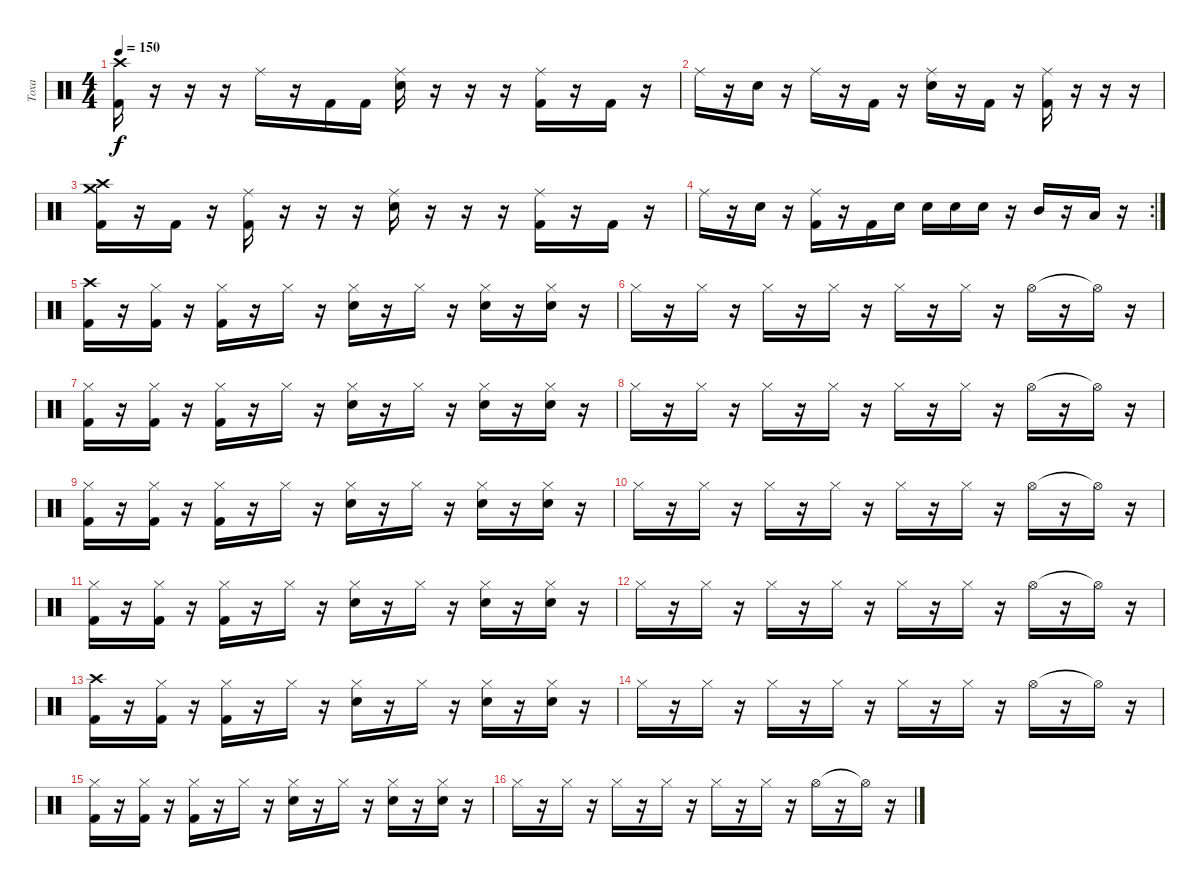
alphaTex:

\track ("Тоха" "Тоха") {instrument percussion}
\staff {score}
\articulation defaults
\ts (4 4)
\tempo 150
\clef neutral
\ks c
("Crash high (hit)" "Kick (hit) 2").16{dy f} r.16 r.16 r.16 "Ride (middle)".16 r.16 "Kick (hit) 2".16 "Kick (hit) 2".16 ("Ride (middle)" "Electric Snare (hit)").16 r.16 r.16 r.16 ("Ride (middle)" "Kick (hit) 2").16 r.16 "Kick (hit) 2".16 r.16 |
"Ride (middle)".16 r.16 "Electric Snare (hit)".16 r.16 "Ride (middle)".16 r.16 "Kick (hit) 2".16 r.16 ("Ride (middle)" "Electric Snare (hit)").16 r.16 "Kick (hit) 2".16 r.16 ("Ride (middle)" "Kick (hit) 2").16 r.16 r.16 r.16 |
("Crash high (hit)" "Crash medium (hit)" "Kick (hit) 2").16 r.16 "Kick (hit) 2".16 r.16 ("Ride (middle)" "Kick (hit) 2").16 r.16 r.16 r.16 ("Ride (middle)" "Electric Snare (hit)").16 r.16 r.16 r.16 ("Ride (middle)" "Kick (hit) 2").16 r.16 "Kick (hit) 2".16 r.16 |
\rc 2 "Ride (middle)".16
r.16 "Electric Snare (hit)".16 r.16 ("Ride (middle)" "Kick (hit) 2").16 r.16 "Kick (hit) 2".16 "Electric Snare (hit)".16 "Electric Snare (hit)".16 "Electric Snare (hit)".16 "Electric Snare (hit)".16 r.16 "Mid Tom (hit)".16 r.16 "Low Tom (hit)".16 r.16 |
("Crash high (hit)" "Kick (hit) 2").16 r.16 ("Hi-Hat (closed)" "Kick (hit) 2").16 r.16 ("Hi-Hat (closed)" "Kick (hit) 2").16 r.16 "Hi-Hat (closed)".16 r.16 ("Hi-Hat (closed)" "Electric Snare (hit)").16 r.16 "Hi-Hat (closed)".16 r.16 ("Hi-Hat (closed)" "Electric Snare (hit)").16 r.16 ("Hi-Hat (closed)" "Electric Snare (hit)").16 r.16 |
"Hi-Hat (closed)".16 r.16 "Hi-Hat (closed)".16 r.16 "Hi-Hat (closed)".16 r.16 "Hi-Hat (closed)".16 r.16 "Hi-Hat (closed)".16 r.16 "Hi-Hat (closed)".16 r.16 "Hi-Hat (open)".16 r.16 "Hi-Hat (open)"{t}.16 r.16 |
("Hi-Hat (closed)" "Kick (hit) 2").16 r.16 ("Hi-Hat (closed)" "Kick (hit) 2").16 r.16 ("Hi-Hat (closed)" "Kick (hit) 2").16 r.16 "Hi-Hat (closed)".16 r.16 ("Hi-Hat (closed)" "Electric Snare (hit)").16 r.16 "Hi-Hat (closed)".16 r.16 ("Hi-Hat (closed)" "Electric Snare (hit)").16 r.16 ("Hi-Hat (closed)" "Electric Snare (hit)").16 r.16 |
"Hi-Hat (closed)".16 r.16 "Hi-Hat (closed)".16 r.16 "Hi-Hat (closed)".16 r.16 "Hi-Hat (closed)".16 r.16 "Hi-Hat (closed)".16 r.16 "Hi-Hat (closed)".16 r.16 "Hi-Hat (open)".16 r.16 "Hi-Hat (open)"{t}.16 r.16 |
("Hi-Hat (closed)" "Kick (hit) 2").16 r.16 ("Hi-Hat (closed)" "Kick (hit) 2").16 r.16 ("Hi-Hat (closed)" "Kick (hit) 2").16 r.16 "Hi-Hat (closed)".16 r.16 ("Hi-Hat (closed)" "Electric Snare (hit)").16 r.16 "Hi-Hat (closed)".16 r.16 ("Hi-Hat (closed)" "Electric Snare (hit)").16 r.16 ("Hi-Hat (closed)" "Electric Snare (hit)").16 r.16 |
"Hi-Hat (closed)".16 r.16 "Hi-Hat (closed)".16 r.16 "Hi-Hat (closed)".16 r.16 "Hi-Hat (closed)".16 r.16 "Hi-Hat (closed)".16 r.16 "Hi-Hat (closed)".16 r.16 "Hi-Hat (open)".16 r.16 "Hi-Hat (open)"{t}.16 r.16 |
("Hi-Hat (closed)" "Kick (hit) 2").16 r.16 ("Hi-Hat (closed)" "Kick (hit) 2").16 r.16 ("Hi-Hat (closed)" "Kick (hit) 2").16 r.16 "Hi-Hat (closed)".16 r.16 ("Hi-Hat (closed)" "Electric Snare (hit)").16 r.16 "Hi-Hat (closed)".16 r.16 ("Hi-Hat (closed)" "Electric Snare (hit)").16 r.16 ("Hi-Hat (closed)" "Electric Snare (hit)").16 r.16 |
"Hi-Hat (closed)".16 r.16 "Hi-Hat (closed)".16 r.16 "Hi-Hat (closed)".16 r.16 "Hi-Hat (closed)".16 r.16 "Hi-Hat (closed)".16 r.16 "Hi-Hat (closed)".16 r.16 "Hi-Hat (open)".16 r.16 "Hi-Hat (open)"{t}.16 r.16 |
("Crash high (hit)" "Kick (hit) 2").16 r.16 ("Hi-Hat (closed)" "Kick (hit) 2").16 r.16 ("Hi-Hat (closed)" "Kick (hit) 2").16 r.16 "Hi-Hat (closed)".16 r.16 ("Hi-Hat (closed)" "Electric Snare (hit)").16 r.16 "Hi-Hat (closed)".16 r.16 ("Hi-Hat (closed)" "Electric Snare (hit)").16 r.16 ("Hi-Hat (closed)" "Electric Snare (hit)").16 r.16 |
"Hi-Hat (closed)".16 r.16 "Hi-Hat (closed)".16 r.16 "Hi-Hat (closed)".16 r.16 "Hi-Hat (closed)".16 r.16 "Hi-Hat (closed)".16 r.16 "Hi-Hat (closed)".16 r.16 "Hi-Hat (open)".16 r.16 "Hi-Hat (open)"{t}.16 r.16 |
("Hi-Hat (closed)" "Kick (hit) 2").16 r.16 ("Hi-Hat (closed)" "Kick (hit) 2").16 r.16 ("Hi-Hat (closed)" "Kick (hit) 2").16 r.16 "Hi-Hat (closed)".16 r.16 ("Hi-Hat (closed)" "Electric Snare (hit)").16 r.16 "Hi-Hat (closed)".16 r.16 ("Hi-Hat (closed)" "Electric Snare (hit)").16 r.16 ("Hi-Hat (closed)" "Electric Snare (hit)").16 r.16 |
"Hi-Hat (closed)".16 r.16 "Hi-Hat (closed)".16 r.16 "Hi-Hat (closed)".16 r.16 "Hi-Hat (closed)".16 r.16 "Hi-Hat (closed)".16 r.16 "Hi-Hat (closed)".16 r.16 "Hi-Hat (open)".16 r.16 "Hi-Hat (open)"{t}.16 r.16
